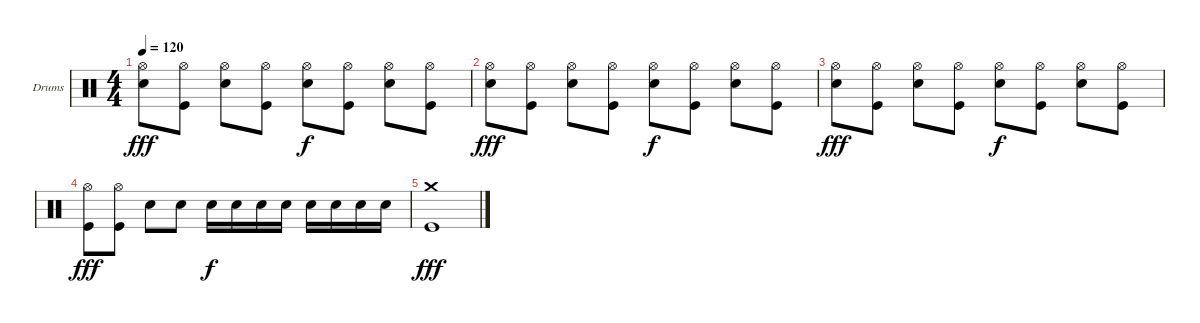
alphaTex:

\defaultSystemsLayout 4
\bracketExtendMode groupsimilarinstruments
\firstSystemTrackNameOrientation horizontal
\otherSystemsTrackNameOrientation horizontal
\track ("Drumkit" "Drums") {instrument percussion}
\staff {score}
\articulation defaults
\ts (4 4)
\tempo 120
\clef neutral
\ks c
("Hi-Hat (open)" "Snare (hit) 2").8{dy fff} ("Hi-Hat (open)" "Kick (hit)").8 ("Hi-Hat (open)" "Snare (hit) 2").8 ("Hi-Hat (open)" "Kick (hit)").8 ("Hi-Hat (open)" "Snare (hit) 2").8{dy f} ("Hi-Hat (open)" "Kick (hit)").8 ("Hi-Hat (open)" "Snare (hit) 2").8 ("Hi-Hat (open)" "Kick (hit)").8 |
("Hi-Hat (open)" "Snare (hit) 2").8{dy fff} ("Hi-Hat (open)" "Kick (hit)").8 ("Hi-Hat (open)" "Snare (hit) 2").8 ("Hi-Hat (open)" "Kick (hit)").8 ("Hi-Hat (open)" "Snare (hit) 2").8{dy f} ("Hi-Hat (open)" "Kick (hit)").8 ("Hi-Hat (open)" "Snare (hit) 2").8 ("Hi-Hat (open)" "Kick (hit)").8 |
("Hi-Hat (open)" "Snare (hit) 2").8{dy fff} ("Hi-Hat (open)" "Kick (hit)").8 ("Hi-Hat (open)" "Snare (hit) 2").8 ("Hi-Hat (open)" "Kick (hit)").8 ("Hi-Hat (open)" "Snare (hit) 2").8{dy f} ("Hi-Hat (open)" "Kick (hit)").8 ("Hi-Hat (open)" "Snare (hit) 2").8 ("Hi-Hat (open)" "Kick (hit)").8 |
("Hi-Hat (open)" "Kick (hit)").8{dy fff} ("Hi-Hat (open)" "Kick (hit)").8 "Snare (hit) 2".8 "Snare (hit) 2".8 "Snare (hit) 2".16{dy f} "Snare (hit) 2".16 "Snare (hit) 2".16 "Snare (hit) 2".16 "Snare (hit) 2".16 "Snare (hit) 2".16 "Snare (hit) 2".16 "Snare (hit) 2".16 |
("Crash medium (hit)" "Kick (hit)").1{dy fff}
